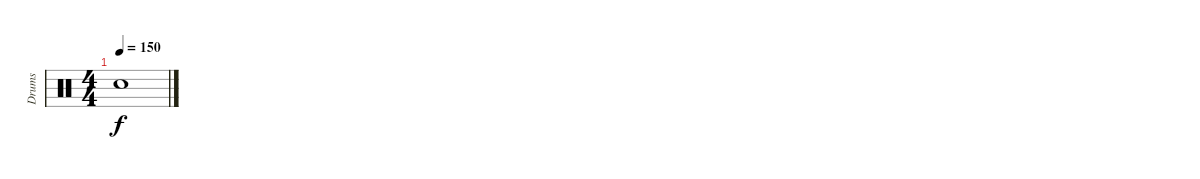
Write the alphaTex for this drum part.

\track ("Drums" "Drums") {instrument percussion}
\staff {score}
\articulation defaults
\ts (4 4)
\tempo 150
\clef neutral
\ks c "Snare (hit)"{t}.1{dy f}
